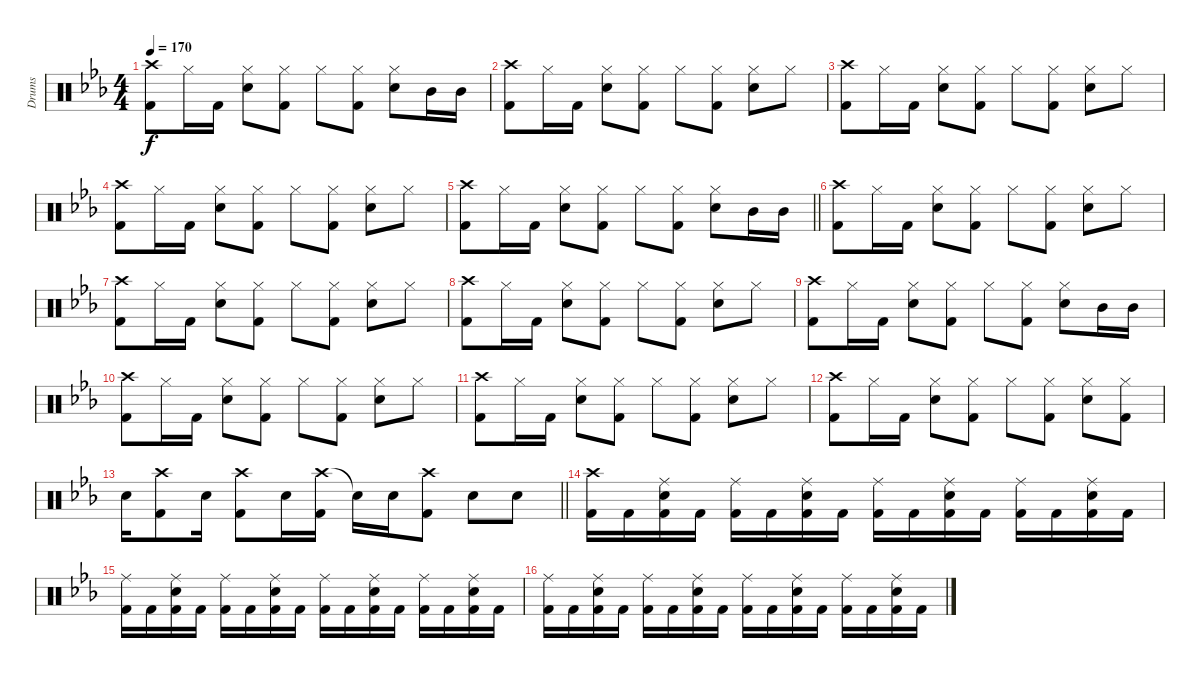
\track ("Drums" "Drums") {instrument percussion}
\staff {score}
\articulation defaults
\ts (4 4)
\tempo 170
\clef neutral
\ks eb
("Crash high (hit)" "Kick (hit) 2").8{dy f} "Hi-Hat (closed)".16 "Kick (hit) 2".16 ("Hi-Hat (closed)" "Snare (hit) 2").8 ("Hi-Hat (closed)" "Kick (hit) 2").8 "Hi-Hat (closed)".8 ("Hi-Hat (closed)" "Kick (hit) 2").8 ("Hi-Hat (closed)" "Snare (hit) 2").8 "Mid Tom (hit)".16 "Mid Tom (hit)".16 |
("Crash high (hit)" "Kick (hit) 2").8 "Hi-Hat (closed)".16 "Kick (hit) 2".16 ("Hi-Hat (closed)" "Snare (hit) 2").8 ("Hi-Hat (closed)" "Kick (hit) 2").8 "Hi-Hat (closed)".8 ("Hi-Hat (closed)" "Kick (hit) 2").8 ("Hi-Hat (closed)" "Snare (hit) 2").8 "Hi-Hat (closed)".8 |
("Crash high (hit)" "Kick (hit) 2").8 "Hi-Hat (closed)".16 "Kick (hit) 2".16 ("Hi-Hat (closed)" "Snare (hit) 2").8 ("Hi-Hat (closed)" "Kick (hit) 2").8 "Hi-Hat (closed)".8 ("Hi-Hat (closed)" "Kick (hit) 2").8 ("Hi-Hat (closed)" "Snare (hit) 2").8 "Hi-Hat (closed)".8 |
("Crash high (hit)" "Kick (hit) 2").8 "Hi-Hat (closed)".16 "Kick (hit) 2".16 ("Hi-Hat (closed)" "Snare (hit) 2").8 ("Hi-Hat (closed)" "Kick (hit) 2").8 "Hi-Hat (closed)".8 ("Hi-Hat (closed)" "Kick (hit) 2").8 ("Hi-Hat (closed)" "Snare (hit) 2").8 "Hi-Hat (closed)".8 |
\barLineRight lightlight
("Crash high (hit)" "Kick (hit) 2").8 "Hi-Hat (closed)".16 "Kick (hit) 2".16 ("Hi-Hat (closed)" "Snare (hit) 2").8 ("Hi-Hat (closed)" "Kick (hit) 2").8 "Hi-Hat (closed)".8 ("Hi-Hat (closed)" "Kick (hit) 2").8 ("Hi-Hat (closed)" "Snare (hit) 2").8 "Mid Tom (hit)".16 "Mid Tom (hit)".16 |
("Crash high (hit)" "Kick (hit) 2").8 "Hi-Hat (closed)".16 "Kick (hit) 2".16 ("Hi-Hat (closed)" "Snare (hit) 2").8 ("Hi-Hat (closed)" "Kick (hit) 2").8 "Hi-Hat (closed)".8 ("Hi-Hat (closed)" "Kick (hit) 2").8 ("Hi-Hat (closed)" "Snare (hit) 2").8 "Hi-Hat (closed)".8 |
("Crash high (hit)" "Kick (hit) 2").8 "Hi-Hat (closed)".16 "Kick (hit) 2".16 ("Hi-Hat (closed)" "Snare (hit) 2").8 ("Hi-Hat (closed)" "Kick (hit) 2").8 "Hi-Hat (closed)".8 ("Hi-Hat (closed)" "Kick (hit) 2").8 ("Hi-Hat (closed)" "Snare (hit) 2").8 "Hi-Hat (closed)".8 |
("Crash high (hit)" "Kick (hit) 2").8 "Hi-Hat (closed)".16 "Kick (hit) 2".16 ("Hi-Hat (closed)" "Snare (hit) 2").8 ("Hi-Hat (closed)" "Kick (hit) 2").8 "Hi-Hat (closed)".8 ("Hi-Hat (closed)" "Kick (hit) 2").8 ("Hi-Hat (closed)" "Snare (hit) 2").8 "Hi-Hat (closed)".8 |
("Crash high (hit)" "Kick (hit) 2").8 "Hi-Hat (closed)".16 "Kick (hit) 2".16 ("Hi-Hat (closed)" "Snare (hit) 2").8 ("Hi-Hat (closed)" "Kick (hit) 2").8 "Hi-Hat (closed)".8 ("Hi-Hat (closed)" "Kick (hit) 2").8 ("Hi-Hat (closed)" "Snare (hit) 2").8 "Mid Tom (hit)".16 "Mid Tom (hit)".16 |
("Crash high (hit)" "Kick (hit) 2").8 "Hi-Hat (closed)".16 "Kick (hit) 2".16 ("Hi-Hat (closed)" "Snare (hit) 2").8 ("Hi-Hat (closed)" "Kick (hit) 2").8 "Hi-Hat (closed)".8 ("Hi-Hat (closed)" "Kick (hit) 2").8 ("Hi-Hat (closed)" "Snare (hit) 2").8 "Hi-Hat (closed)".8 |
("Crash high (hit)" "Kick (hit) 2").8 "Hi-Hat (closed)".16 "Kick (hit) 2".16 ("Hi-Hat (closed)" "Snare (hit) 2").8 ("Hi-Hat (closed)" "Kick (hit) 2").8 "Hi-Hat (closed)".8 ("Hi-Hat (closed)" "Kick (hit) 2").8 ("Hi-Hat (closed)" "Snare (hit) 2").8 "Hi-Hat (closed)".8 |
("Crash high (hit)" "Kick (hit) 2").8 "Hi-Hat (closed)".16 "Kick (hit) 2".16 ("Hi-Hat (closed)" "Snare (hit) 2").8 ("Hi-Hat (closed)" "Kick (hit) 2").8 "Hi-Hat (closed)".8 ("Hi-Hat (closed)" "Kick (hit) 2").8 ("Hi-Hat (closed)" "Snare (hit) 2").8 ("Hi-Hat (closed)" "Kick (hit) 2").8 |
\barLineRight lightlight "Snare (hit) 2".16
("Crash high (hit)" "Kick (hit) 2").8 "Snare (hit) 2".16 ("Crash high (hit)" "Kick (hit) 2").8 "Snare (hit) 2".16 ("Crash high (hit)" "Kick (hit) 2").16 "Snare (hit)"{t}.16 "Snare (hit) 2".16 ("Crash high (hit)" "Kick (hit) 2").8 "Snare (hit) 2".8 "Snare (hit) 2".8 |
("Crash high (hit)" "Kick (hit) 2").16 "Kick (hit) 2".16 ("Ride (middle)" "Snare (hit) 2" "Kick (hit) 2").16 "Kick (hit) 2".16 ("Ride (middle)" "Kick (hit) 2").16 "Kick (hit) 2".16 ("Ride (middle)" "Snare (hit) 2" "Kick (hit) 2").16 "Kick (hit) 2".16 ("Ride (middle)" "Kick (hit) 2").16 "Kick (hit) 2".16 ("Ride (middle)" "Snare (hit) 2" "Kick (hit) 2").16 "Kick (hit) 2".16 ("Ride (middle)" "Kick (hit) 2").16 "Kick (hit) 2".16 ("Ride (middle)" "Snare (hit) 2" "Kick (hit) 2").16 "Kick (hit) 2".16 |
("Ride (middle)" "Kick (hit) 2").16 "Kick (hit) 2".16 ("Ride (middle)" "Snare (hit) 2" "Kick (hit) 2").16 "Kick (hit) 2".16 ("Ride (middle)" "Kick (hit) 2").16 "Kick (hit) 2".16 ("Ride (middle)" "Snare (hit) 2" "Kick (hit) 2").16 "Kick (hit) 2".16 ("Ride (middle)" "Kick (hit) 2").16 "Kick (hit) 2".16 ("Ride (middle)" "Snare (hit) 2" "Kick (hit) 2").16 "Kick (hit) 2".16 ("Ride (middle)" "Kick (hit) 2").16 "Kick (hit) 2".16 ("Ride (middle)" "Snare (hit) 2" "Kick (hit) 2").16 "Kick (hit) 2".16 |
("Ride (middle)" "Kick (hit) 2").16 "Kick (hit) 2".16 ("Ride (middle)" "Snare (hit) 2" "Kick (hit) 2").16 "Kick (hit) 2".16 ("Ride (middle)" "Kick (hit) 2").16 "Kick (hit) 2".16 ("Ride (middle)" "Snare (hit) 2" "Kick (hit) 2").16 "Kick (hit) 2".16 ("Ride (middle)" "Kick (hit) 2").16 "Kick (hit) 2".16 ("Ride (middle)" "Snare (hit) 2" "Kick (hit) 2").16 "Kick (hit) 2".16 ("Ride (middle)" "Kick (hit) 2").16 "Kick (hit) 2".16 ("Ride (middle)" "Snare (hit) 2" "Kick (hit) 2").16 "Kick (hit) 2".16
